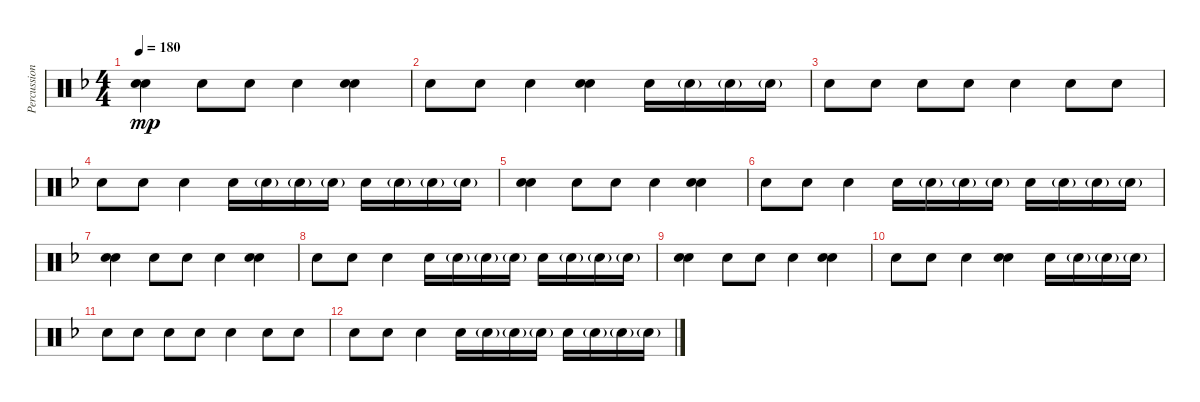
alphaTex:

\track ("Percussion" "Percussion") {instrument percussion}
\staff {score}
\articulation defaults
\ts (4 4)
\tempo 180
\clef neutral
\ks f
("Snare (hit) 2" "Snare (hit) 2").4{bd 240 dy mp} "Snare (hit) 2".8 "Snare (hit) 2".8 "Snare (hit) 2".4 ("Snare (hit) 2" "Snare (hit) 2").4{bd 240} |
"Snare (hit) 2".8 "Snare (hit) 2".8 "Snare (hit) 2".4 ("Snare (hit) 2" "Snare (hit) 2").4{bd 240} "Snare (hit) 2".16 "Snare (hit) 2"{g}.16 "Snare (hit) 2"{g}.16 "Snare (hit) 2"{g}.16 |
"Snare (hit) 2".8 "Snare (hit) 2".8 "Snare (hit) 2".8 "Snare (hit) 2".8 "Snare (hit) 2".4 "Snare (hit) 2".8 "Snare (hit) 2".8 |
"Snare (hit) 2".8 "Snare (hit) 2".8 "Snare (hit) 2".4 "Snare (hit) 2".16 "Snare (hit) 2"{g}.16 "Snare (hit) 2"{g}.16 "Snare (hit) 2"{g}.16 "Snare (hit) 2".16 "Snare (hit) 2"{g}.16 "Snare (hit) 2"{g}.16 "Snare (hit) 2"{g}.16 |
("Snare (hit) 2" "Snare (hit) 2").4{bd 240} "Snare (hit) 2".8 "Snare (hit) 2".8 "Snare (hit) 2".4 ("Snare (hit) 2" "Snare (hit) 2").4{bd 240} |
"Snare (hit) 2".8 "Snare (hit) 2".8 "Snare (hit) 2".4 "Snare (hit) 2".16 "Snare (hit) 2"{g}.16 "Snare (hit) 2"{g}.16 "Snare (hit) 2"{g}.16 "Snare (hit) 2".16 "Snare (hit) 2"{g}.16 "Snare (hit) 2"{g}.16 "Snare (hit) 2"{g}.16 |
("Snare (hit) 2" "Snare (hit) 2").4{bd 240} "Snare (hit) 2".8 "Snare (hit) 2".8 "Snare (hit) 2".4 ("Snare (hit) 2" "Snare (hit) 2").4{bd 240} |
"Snare (hit) 2".8 "Snare (hit) 2".8 "Snare (hit) 2".4 "Snare (hit) 2".16 "Snare (hit) 2"{g}.16 "Snare (hit) 2"{g}.16 "Snare (hit) 2"{g}.16 "Snare (hit) 2".16 "Snare (hit) 2"{g}.16 "Snare (hit) 2"{g}.16 "Snare (hit) 2"{g}.16 |
("Snare (hit) 2" "Snare (hit) 2").4{bd 240} "Snare (hit) 2".8 "Snare (hit) 2".8 "Snare (hit) 2".4 ("Snare (hit) 2" "Snare (hit) 2").4{bd 240} |
"Snare (hit) 2".8 "Snare (hit) 2".8 "Snare (hit) 2".4 ("Snare (hit) 2" "Snare (hit) 2").4{bd 240} "Snare (hit) 2".16 "Snare (hit) 2"{g}.16 "Snare (hit) 2"{g}.16 "Snare (hit) 2"{g}.16 |
"Snare (hit) 2".8 "Snare (hit) 2".8 "Snare (hit) 2".8 "Snare (hit) 2".8 "Snare (hit) 2".4 "Snare (hit) 2".8 "Snare (hit) 2".8 |
"Snare (hit) 2".8 "Snare (hit) 2".8 "Snare (hit) 2".4 "Snare (hit) 2".16 "Snare (hit) 2"{g}.16 "Snare (hit) 2"{g}.16 "Snare (hit) 2"{g}.16 "Snare (hit) 2".16 "Snare (hit) 2"{g}.16 "Snare (hit) 2"{g}.16 "Snare (hit) 2"{g}.16
